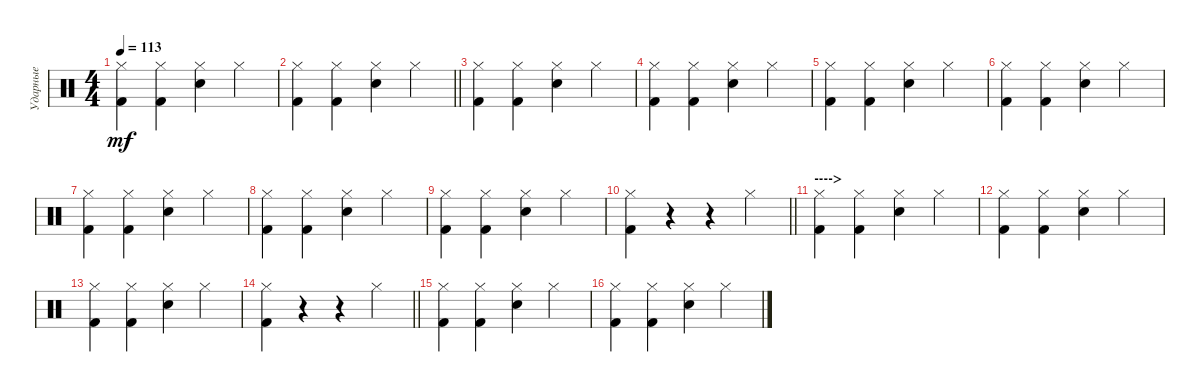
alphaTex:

\track ("Ударные" "Ударные") {instrument percussion}
\staff {score}
\articulation defaults
\ts (4 4)
\tempo 113
\clef neutral
\ks c
("Hi-Hat (closed)" "Kick (hit) 2").4{dy mf} ("Hi-Hat (closed)" "Kick (hit) 2").4 ("Hi-Hat (closed)" "Electric Snare (hit)").4 "Hi-Hat (closed)".4 |
\barLineRight lightlight
("Hi-Hat (closed)" "Kick (hit) 2").4 ("Hi-Hat (closed)" "Kick (hit) 2").4 ("Hi-Hat (closed)" "Electric Snare (hit)").4 "Hi-Hat (closed)".4 |
("Hi-Hat (closed)" "Kick (hit) 2").4 ("Hi-Hat (closed)" "Kick (hit) 2").4 ("Hi-Hat (closed)" "Electric Snare (hit)").4 "Hi-Hat (closed)".4 |
("Hi-Hat (closed)" "Kick (hit) 2").4 ("Hi-Hat (closed)" "Kick (hit) 2").4 ("Hi-Hat (closed)" "Electric Snare (hit)").4 "Hi-Hat (closed)".4 |
("Hi-Hat (closed)" "Kick (hit) 2").4 ("Hi-Hat (closed)" "Kick (hit) 2").4 ("Hi-Hat (closed)" "Electric Snare (hit)").4 "Hi-Hat (closed)".4 |
("Hi-Hat (closed)" "Kick (hit) 2").4 ("Hi-Hat (closed)" "Kick (hit) 2").4 ("Hi-Hat (closed)" "Electric Snare (hit)").4 "Hi-Hat (closed)".4 |
("Hi-Hat (closed)" "Kick (hit) 2").4 ("Hi-Hat (closed)" "Kick (hit) 2").4 ("Hi-Hat (closed)" "Electric Snare (hit)").4 "Hi-Hat (closed)".4 |
("Hi-Hat (closed)" "Kick (hit) 2").4 ("Hi-Hat (closed)" "Kick (hit) 2").4 ("Hi-Hat (closed)" "Electric Snare (hit)").4 "Hi-Hat (closed)".4 |
("Hi-Hat (closed)" "Kick (hit) 2").4 ("Hi-Hat (closed)" "Kick (hit) 2").4 ("Hi-Hat (closed)" "Electric Snare (hit)").4 "Hi-Hat (closed)".4 |
\barLineRight lightlight
("Hi-Hat (closed)" "Kick (hit) 2").4 r.4 r.4 "Hi-Hat (closed)".4 |
\section ("" "---->")
("Hi-Hat (closed)" "Kick (hit) 2").4 ("Hi-Hat (closed)" "Kick (hit) 2").4 ("Hi-Hat (closed)" "Electric Snare (hit)").4 "Hi-Hat (closed)".4 |
("Hi-Hat (closed)" "Kick (hit) 2").4 ("Hi-Hat (closed)" "Kick (hit) 2").4 ("Hi-Hat (closed)" "Electric Snare (hit)").4 "Hi-Hat (closed)".4 |
("Hi-Hat (closed)" "Kick (hit) 2").4 ("Hi-Hat (closed)" "Kick (hit) 2").4 ("Hi-Hat (closed)" "Electric Snare (hit)").4 "Hi-Hat (closed)".4 |
\barLineRight lightlight
("Hi-Hat (closed)" "Kick (hit) 2").4 r.4 r.4 "Hi-Hat (closed)".4 |
("Hi-Hat (closed)" "Kick (hit) 2").4 ("Hi-Hat (closed)" "Kick (hit) 2").4 ("Hi-Hat (closed)" "Electric Snare (hit)").4 "Hi-Hat (closed)".4 |
("Hi-Hat (closed)" "Kick (hit) 2").4 ("Hi-Hat (closed)" "Kick (hit) 2").4 ("Hi-Hat (closed)" "Electric Snare (hit)").4 "Hi-Hat (closed)".4
